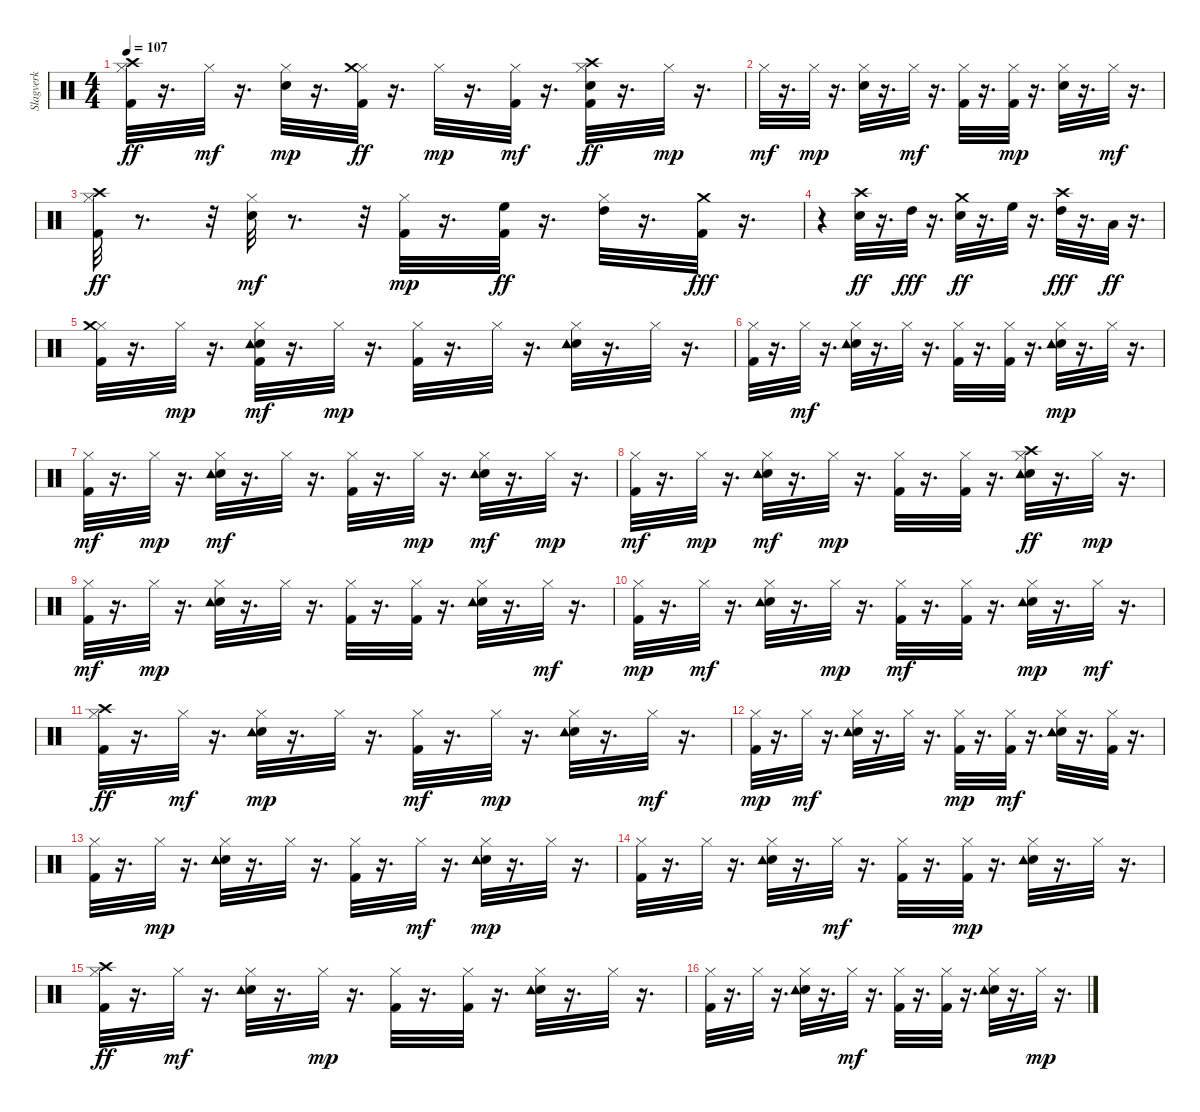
\track ("Slagverk" "Slagverk") {instrument percussion}
\staff {score}
\articulation defaults
\ts (4 4)
\tempo 107
\clef neutral
\ks c
("Kick (hit) 2" "Hi-Hat (closed)" "Crash high (hit)").32{dy ff} r.16{d} "Hi-Hat (closed)".32{dy mf} r.16{d} ("Snare (hit) 2" "Hi-Hat (closed)").32{dy mp} r.16{d} ("Kick (hit) 2" "Hi-Hat (closed)" "Crash medium (hit)").32{dy ff} r.16{d} "Hi-Hat (closed)".32{dy mp} r.16{d} ("Kick (hit) 2" "Hi-Hat (closed)").32{dy mf} r.16{d} ("Kick (hit) 2" "Snare (hit) 2" "Hi-Hat (closed)" "Crash high (hit)").32{dy ff} r.16{d} "Hi-Hat (closed)".32{dy mp} r.16{d} |
"Hi-Hat (closed)".32{dy mf} r.16{d} "Hi-Hat (closed)".32{dy mp} r.16{d} ("Snare (hit) 2" "Hi-Hat (closed)").32 r.16{d} "Hi-Hat (closed)".32{dy mf} r.16{d} ("Kick (hit) 2" "Hi-Hat (closed)").32 r.16{d} ("Kick (hit) 2" "Hi-Hat (closed)").32{dy mp} r.16{d} ("Snare (hit) 2" "Hi-Hat (closed)").32 r.16{d} "Hi-Hat (closed)".32{dy mf} r.16{d} |
("Kick (hit) 2" "Hi-Hat (closed)" "Crash high (hit)").32{dy ff} r.8{d} r.32 ("Snare (hit) 2" "Hi-Hat (closed)").32{dy mf} r.8{d} r.32 ("Kick (hit) 2" "Hi-Hat (closed)").32{dy mp} r.16{d} ("Kick (hit) 2" "High Floor Tom (hit)").32{dy ff} r.16{d} ("Hi-Hat (closed)" "High Tom (hit)").32 r.16{d} ("Kick (hit) 2" "Crash medium (hit)").32{dy fff} r.16{d} |
r.4 ("Snare (hit) 2" "Crash high (hit)").32{dy ff} r.16{d} "High Tom (hit)".32{dy fff} r.16{d} ("Snare (hit) 2" "Crash medium (hit)").32{dy ff} r.16{d} "High Floor Tom (hit)".32 r.16{d} ("High Tom (hit)" "Crash high (hit)").32{dy fff} r.16{d} "Low Tom (hit)".32{dy ff} r.16{d} |
("Kick (hit) 2" "Hi-Hat (closed)" "Crash medium (hit)").32 r.16{d} "Hi-Hat (closed)".32{dy mp} r.16{d} ("Kick (hit) 2" "Snare (hit) 2" "Hi-Hat (closed)" "Tambourine (hit)").32{dy mf} r.16{d} "Hi-Hat (closed)".32{dy mp} r.16{d} ("Kick (hit) 2" "Hi-Hat (closed)").32 r.16{d} "Hi-Hat (closed)".32 r.16{d} ("Snare (hit) 2" "Hi-Hat (closed)" "Tambourine (hit)").32 r.16{d} "Hi-Hat (closed)".32 r.16{d} |
("Kick (hit) 2" "Hi-Hat (closed)").32 r.16{d} "Hi-Hat (closed)".32{dy mf} r.16{d} ("Snare (hit) 2" "Hi-Hat (closed)" "Tambourine (hit)").32 r.16{d} "Hi-Hat (closed)".32 r.16{d} ("Kick (hit) 2" "Hi-Hat (closed)").32 r.16{d} ("Kick (hit) 2" "Hi-Hat (closed)").32 r.16{d} ("Snare (hit) 2" "Hi-Hat (closed)" "Tambourine (hit)").32{dy mp} r.16{d} "Hi-Hat (closed)".32 r.16{d} |
("Kick (hit) 2" "Hi-Hat (closed)").32{dy mf} r.16{d} "Hi-Hat (closed)".32{dy mp} r.16{d} ("Snare (hit) 2" "Hi-Hat (closed)" "Tambourine (hit)").32{dy mf} r.16{d} "Hi-Hat (closed)".32 r.16{d} ("Kick (hit) 2" "Hi-Hat (closed)").32 r.16{d} "Hi-Hat (closed)".32{dy mp} r.16{d} ("Snare (hit) 2" "Hi-Hat (closed)" "Tambourine (hit)").32{dy mf} r.16{d} "Hi-Hat (closed)".32{dy mp} r.16{d} |
("Kick (hit) 2" "Hi-Hat (closed)").32{dy mf} r.16{d} "Hi-Hat (closed)".32{dy mp} r.16{d} ("Snare (hit) 2" "Hi-Hat (closed)" "Tambourine (hit)").32{dy mf} r.16{d} "Hi-Hat (closed)".32{dy mp} r.16{d} ("Kick (hit) 2" "Hi-Hat (closed)").32 r.16{d} ("Kick (hit) 2" "Hi-Hat (closed)").32 r.16{d} ("Snare (hit) 2" "Hi-Hat (closed)" "Crash high (hit)" "Tambourine (hit)").32{dy ff} r.16{d} "Hi-Hat (closed)".32{dy mp} r.16{d} |
("Kick (hit) 2" "Hi-Hat (closed)").32{dy mf} r.16{d} "Hi-Hat (closed)".32{dy mp} r.16{d} ("Snare (hit) 2" "Hi-Hat (closed)" "Tambourine (hit)").32 r.16{d} "Hi-Hat (closed)".32 r.16{d} ("Kick (hit) 2" "Hi-Hat (closed)").32 r.16{d} ("Kick (hit) 2" "Hi-Hat (closed)").32 r.16{d} ("Snare (hit) 2" "Hi-Hat (closed)" "Tambourine (hit)").32 r.16{d} "Hi-Hat (closed)".32{dy mf} r.16{d} |
("Kick (hit) 2" "Hi-Hat (closed)").32{dy mp} r.16{d} "Hi-Hat (closed)".32{dy mf} r.16{d} ("Snare (hit) 2" "Hi-Hat (closed)" "Tambourine (hit)").32 r.16{d} "Hi-Hat (closed)".32{dy mp} r.16{d} ("Kick (hit) 2" "Hi-Hat (closed)").32{dy mf} r.16{d} ("Kick (hit) 2" "Hi-Hat (closed)").32 r.16{d} ("Snare (hit) 2" "Hi-Hat (closed)" "Tambourine (hit)").32{dy mp} r.16{d} "Hi-Hat (closed)".32{dy mf} r.16{d} |
("Kick (hit) 2" "Hi-Hat (closed)" "Crash high (hit)").32{dy ff} r.16{d} "Hi-Hat (closed)".32{dy mf} r.16{d} ("Snare (hit) 2" "Hi-Hat (closed)" "Tambourine (hit)").32{dy mp} r.16{d} "Hi-Hat (closed)".32 r.16{d} ("Kick (hit) 2" "Hi-Hat (closed)").32{dy mf} r.16{d} "Hi-Hat (closed)".32{dy mp} r.16{d} ("Snare (hit) 2" "Hi-Hat (closed)" "Tambourine (hit)").32 r.16{d} "Hi-Hat (closed)".32{dy mf} r.16{d} |
("Kick (hit) 2" "Hi-Hat (closed)").32{dy mp} r.16{d} "Hi-Hat (closed)".32{dy mf} r.16{d} ("Snare (hit) 2" "Hi-Hat (closed)" "Tambourine (hit)").32 r.16{d} "Hi-Hat (closed)".32 r.16{d} ("Kick (hit) 2" "Hi-Hat (closed)").32{dy mp} r.16{d} ("Kick (hit) 2" "Hi-Hat (closed)").32{dy mf} r.16{d} ("Snare (hit) 2" "Hi-Hat (closed)" "Tambourine (hit)").32 r.16{d} ("Kick (hit) 2" "Hi-Hat (closed)").32 r.16{d} |
("Kick (hit) 2" "Hi-Hat (closed)").32 r.16{d} "Hi-Hat (closed)".32{dy mp} r.16{d} ("Snare (hit) 2" "Hi-Hat (closed)" "Tambourine (hit)").32 r.16{d} "Hi-Hat (closed)".32 r.16{d} ("Kick (hit) 2" "Hi-Hat (closed)").32 r.16{d} "Hi-Hat (closed)".32{dy mf} r.16{d} ("Snare (hit) 2" "Hi-Hat (closed)" "Tambourine (hit)").32{dy mp} r.16{d} "Hi-Hat (closed)".32 r.16{d} |
("Kick (hit) 2" "Hi-Hat (closed)").32 r.16{d} "Hi-Hat (closed)".32 r.16{d} ("Snare (hit) 2" "Hi-Hat (closed)" "Tambourine (hit)").32 r.16{d} "Hi-Hat (closed)".32{dy mf} r.16{d} ("Kick (hit) 2" "Hi-Hat (closed)").32 r.16{d} ("Kick (hit) 2" "Hi-Hat (closed)").32{dy mp} r.16{d} ("Snare (hit) 2" "Hi-Hat (closed)" "Tambourine (hit)").32 r.16{d} "Hi-Hat (closed)".32 r.16{d} |
("Kick (hit) 2" "Hi-Hat (closed)" "Crash high (hit)").32{dy ff} r.16{d} "Hi-Hat (closed)".32{dy mf} r.16{d} ("Snare (hit) 2" "Hi-Hat (closed)" "Tambourine (hit)").32 r.16{d} "Hi-Hat (closed)".32{dy mp} r.16{d} ("Kick (hit) 2" "Hi-Hat (closed)").32 r.16{d} ("Kick (hit) 2" "Hi-Hat (closed)").32 r.16{d} ("Snare (hit) 2" "Hi-Hat (closed)" "Tambourine (hit)").32 r.16{d} "Hi-Hat (closed)".32 r.16{d} |
("Kick (hit) 2" "Hi-Hat (closed)").32 r.16{d} "Hi-Hat (closed)".32 r.16{d} ("Snare (hit) 2" "Hi-Hat (closed)" "Tambourine (hit)").32 r.16{d} "Hi-Hat (closed)".32{dy mf} r.16{d} ("Kick (hit) 2" "Hi-Hat (closed)").32 r.16{d} ("Kick (hit) 2" "Hi-Hat (closed)").32 r.16{d} ("Snare (hit) 2" "Hi-Hat (closed)" "Tambourine (hit)").32 r.16{d} "Hi-Hat (closed)".32{dy mp} r.16{d}
